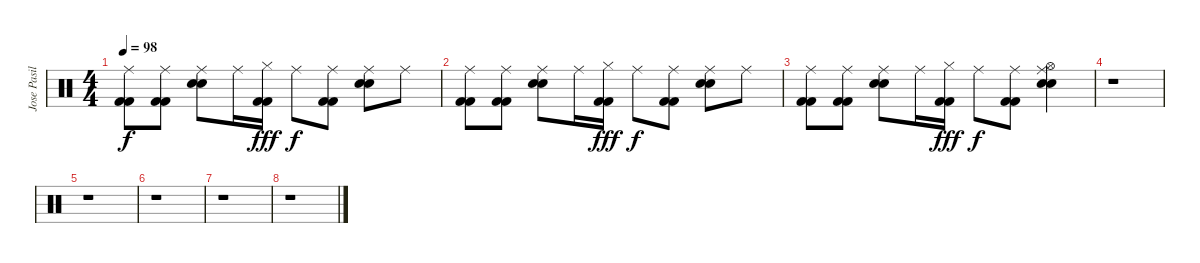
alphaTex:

\track ("Jose Pasillas - Drums" "Jose Pasil") {instrument percussion}
\staff {score}
\articulation defaults
\ts (4 4)
\tempo 98
\clef neutral
\ks c
("Ride (middle)" "Kick (hit) 2" "Kick (hit) 2").8{dy f} ("Ride (middle)" "Kick (hit) 2" "Kick (hit) 2").8 ("Ride (middle)" "Electric Snare (hit)" "Electric Snare (hit)").8 "Ride (middle)".16 ("Hi-Hat (closed)" "Kick (hit) 2" "Kick (hit) 2").16{dy fff} "Ride (middle)".8{dy f} ("Ride (middle)" "Kick (hit) 2" "Kick (hit) 2").8 ("Ride (middle)" "Electric Snare (hit)" "Electric Snare (hit)").8 "Ride (middle)".8 |
("Ride (middle)" "Kick (hit) 2" "Kick (hit) 2").8 ("Ride (middle)" "Kick (hit) 2" "Kick (hit) 2").8 ("Ride (middle)" "Electric Snare (hit)" "Electric Snare (hit)").8 "Ride (middle)".16 ("Hi-Hat (closed)" "Kick (hit) 2" "Kick (hit) 2").16{dy fff} "Ride (middle)".8{dy f} ("Ride (middle)" "Kick (hit) 2" "Kick (hit) 2").8 ("Ride (middle)" "Electric Snare (hit)" "Electric Snare (hit)").8 "Ride (middle)".8 |
("Ride (middle)" "Kick (hit) 2" "Kick (hit) 2").8 ("Ride (middle)" "Kick (hit) 2" "Kick (hit) 2").8 ("Ride (middle)" "Electric Snare (hit)" "Electric Snare (hit)").8 "Ride (middle)".16 ("Hi-Hat (closed)" "Kick (hit) 2" "Kick (hit) 2").16{dy fff} "Ride (middle)".8{dy f} ("Ride (middle)" "Kick (hit) 2" "Kick (hit) 2").8 ("Ride (middle)" "Hi-Hat (open)" "Electric Snare (hit)" "Electric Snare (hit)").4 |
r.1 |
r.1 |
r.1 |
r.1 |
r.1
